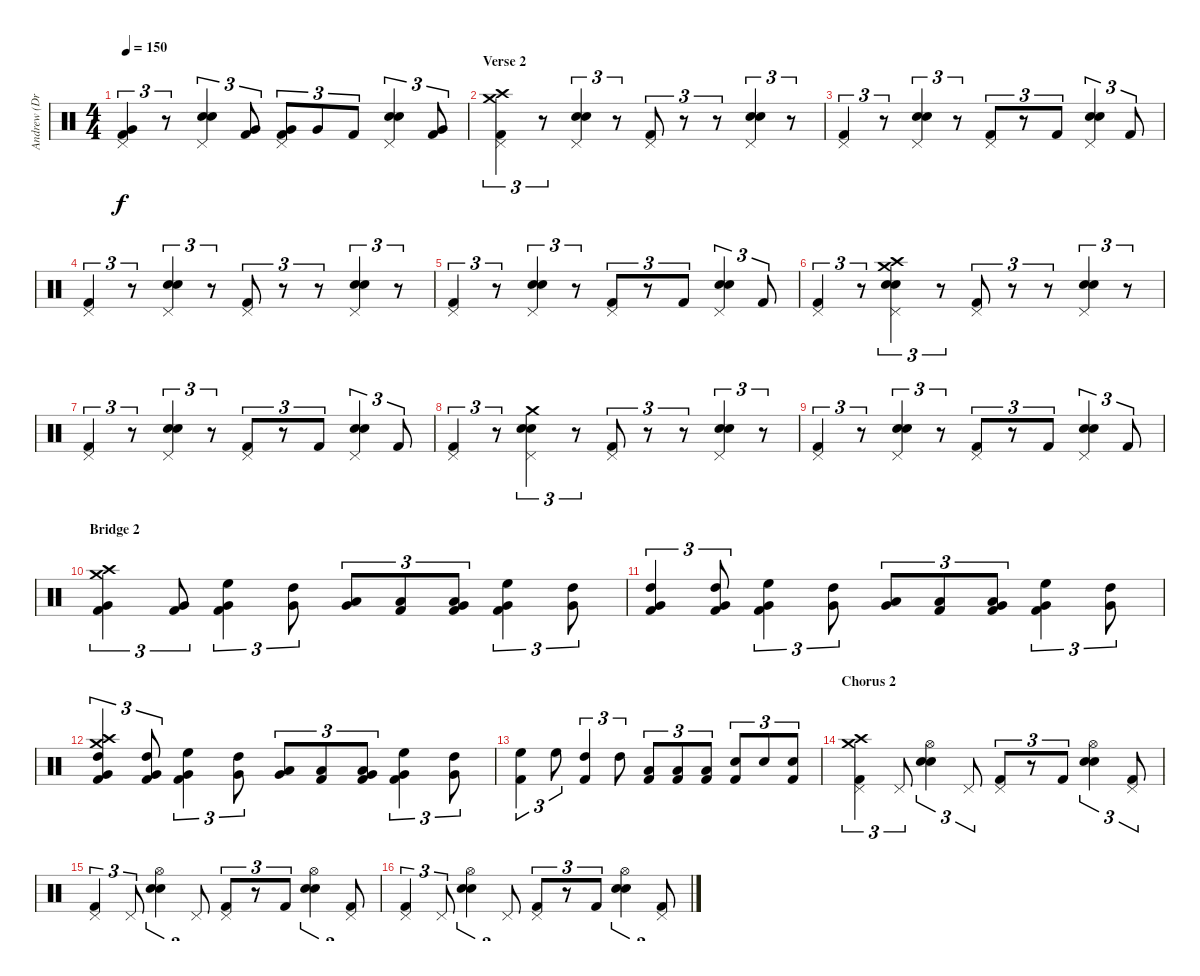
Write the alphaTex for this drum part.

\track ("Andrew (Drums)" "Andrew (Dr") {instrument percussion}
\staff {score}
\articulation defaults
\ts (4 4)
\tempo 150
\clef neutral
\ks c
("Kick (hit) 2" "Pedal Hi-Hat (hit)" "Very Low Tom (hit)").4{tu (3 2) dy f} r.8{tu (3 2)} ("Electric Snare (hit)" "Snare (hit) 2" "Pedal Hi-Hat (hit)").4{tu (3 2)} ("Kick (hit) 2" "Very Low Tom (hit)").8{tu (3 2)} ("Kick (hit) 2" "Pedal Hi-Hat (hit)" "Very Low Tom (hit)").8{tu (3 2)} "Very Low Tom (hit)".8{tu (3 2)} "Kick (hit) 2".8{tu (3 2)} ("Electric Snare (hit)" "Snare (hit) 2" "Pedal Hi-Hat (hit)").4{tu (3 2)} ("Kick (hit) 2" "Very Low Tom (hit)").8{tu (3 2)} |
\section ("" "Verse 2")
("Kick (hit) 2" "Pedal Hi-Hat (hit)" "Crash medium (hit)" "Crash high (hit)").4{tu (3 2)} r.8{tu (3 2)} ("Electric Snare (hit)" "Snare (hit) 2" "Pedal Hi-Hat (hit)").4{tu (3 2)} r.8{tu (3 2)} ("Kick (hit) 2" "Pedal Hi-Hat (hit)").8{tu (3 2)} r.8{tu (3 2)} r.8{tu (3 2)} ("Electric Snare (hit)" "Snare (hit) 2" "Pedal Hi-Hat (hit)").4{tu (3 2)} r.8{tu (3 2)} |
("Kick (hit) 2" "Pedal Hi-Hat (hit)").4{tu (3 2)} r.8{tu (3 2)} ("Electric Snare (hit)" "Snare (hit) 2" "Pedal Hi-Hat (hit)").4{tu (3 2)} r.8{tu (3 2)} ("Kick (hit) 2" "Pedal Hi-Hat (hit)").8{tu (3 2)} r.8{tu (3 2)} "Kick (hit) 2".8{tu (3 2)} ("Electric Snare (hit)" "Snare (hit) 2" "Pedal Hi-Hat (hit)").4{tu (3 2)} "Kick (hit) 2".8{tu (3 2)} |
("Kick (hit) 2" "Pedal Hi-Hat (hit)").4{tu (3 2)} r.8{tu (3 2)} ("Electric Snare (hit)" "Snare (hit) 2" "Pedal Hi-Hat (hit)").4{tu (3 2)} r.8{tu (3 2)} ("Kick (hit) 2" "Pedal Hi-Hat (hit)").8{tu (3 2)} r.8{tu (3 2)} r.8{tu (3 2)} ("Electric Snare (hit)" "Snare (hit) 2" "Pedal Hi-Hat (hit)").4{tu (3 2)} r.8{tu (3 2)} |
("Kick (hit) 2" "Pedal Hi-Hat (hit)").4{tu (3 2)} r.8{tu (3 2)} ("Electric Snare (hit)" "Snare (hit) 2" "Pedal Hi-Hat (hit)").4{tu (3 2)} r.8{tu (3 2)} ("Kick (hit) 2" "Pedal Hi-Hat (hit)").8{tu (3 2)} r.8{tu (3 2)} "Kick (hit) 2".8{tu (3 2)} ("Electric Snare (hit)" "Snare (hit) 2" "Pedal Hi-Hat (hit)").4{tu (3 2)} "Kick (hit) 2".8{tu (3 2)} |
("Kick (hit) 2" "Pedal Hi-Hat (hit)").4{tu (3 2)} r.8{tu (3 2)} ("Electric Snare (hit)" "Snare (hit) 2" "Pedal Hi-Hat (hit)" "Crash medium (hit)" "Crash high (hit)").4{tu (3 2)} r.8{tu (3 2)} ("Kick (hit) 2" "Pedal Hi-Hat (hit)").8{tu (3 2)} r.8{tu (3 2)} r.8{tu (3 2)} ("Electric Snare (hit)" "Snare (hit) 2" "Pedal Hi-Hat (hit)").4{tu (3 2)} r.8{tu (3 2)} |
("Kick (hit) 2" "Pedal Hi-Hat (hit)").4{tu (3 2)} r.8{tu (3 2)} ("Electric Snare (hit)" "Snare (hit) 2" "Pedal Hi-Hat (hit)").4{tu (3 2)} r.8{tu (3 2)} ("Kick (hit) 2" "Pedal Hi-Hat (hit)").8{tu (3 2)} r.8{tu (3 2)} "Kick (hit) 2".8{tu (3 2)} ("Electric Snare (hit)" "Snare (hit) 2" "Pedal Hi-Hat (hit)").4{tu (3 2)} "Kick (hit) 2".8{tu (3 2)} |
("Kick (hit) 2" "Pedal Hi-Hat (hit)").4{tu (3 2)} r.8{tu (3 2)} ("Electric Snare (hit)" "Snare (hit) 2" "Pedal Hi-Hat (hit)" "Crash medium (hit)").4{tu (3 2)} r.8{tu (3 2)} ("Kick (hit) 2" "Pedal Hi-Hat (hit)").8{tu (3 2)} r.8{tu (3 2)} r.8{tu (3 2)} ("Electric Snare (hit)" "Snare (hit) 2" "Pedal Hi-Hat (hit)").4{tu (3 2)} r.8{tu (3 2)} |
("Kick (hit) 2" "Pedal Hi-Hat (hit)").4{tu (3 2)} r.8{tu (3 2)} ("Electric Snare (hit)" "Snare (hit) 2" "Pedal Hi-Hat (hit)").4{tu (3 2)} r.8{tu (3 2)} ("Kick (hit) 2" "Pedal Hi-Hat (hit)").8{tu (3 2)} r.8{tu (3 2)} "Kick (hit) 2".8{tu (3 2)} ("Electric Snare (hit)" "Snare (hit) 2" "Pedal Hi-Hat (hit)").4{tu (3 2)} "Kick (hit) 2".8{tu (3 2)} |
\section ("" "Bridge 2")
("Crash high (hit)" "Crash medium (hit)" "Kick (hit) 2" "Very Low Tom (hit)").4{tu (3 2)} ("Kick (hit) 2" "Very Low Tom (hit)").8{tu (3 2)} ("High Floor Tom (hit)" "Kick (hit) 2" "Very Low Tom (hit)").4{tu (3 2)} ("High Tom (hit)" "Very Low Tom (hit)").8{tu (3 2)} ("Low Tom (hit)" "Very Low Tom (hit)").8{tu (3 2)} ("Low Tom (hit)" "Kick (hit) 2").8{tu (3 2)} ("Low Tom (hit)" "Kick (hit) 2" "Very Low Tom (hit)").8{tu (3 2)} ("High Floor Tom (hit)" "Kick (hit) 2" "Very Low Tom (hit)").4{tu (3 2)} ("High Tom (hit)" "Very Low Tom (hit)").8{tu (3 2)} |
("High Tom (hit)" "Kick (hit) 2" "Very Low Tom (hit)").4{tu (3 2)} ("High Tom (hit)" "Kick (hit) 2" "Very Low Tom (hit)").8{tu (3 2)} ("High Floor Tom (hit)" "Kick (hit) 2" "Very Low Tom (hit)").4{tu (3 2)} ("High Tom (hit)" "Very Low Tom (hit)").8{tu (3 2)} ("Low Tom (hit)" "Very Low Tom (hit)").8{tu (3 2)} ("Low Tom (hit)" "Kick (hit) 2").8{tu (3 2)} ("Low Tom (hit)" "Kick (hit) 2" "Very Low Tom (hit)").8{tu (3 2)} ("High Floor Tom (hit)" "Kick (hit) 2" "Very Low Tom (hit)").4{tu (3 2)} ("High Tom (hit)" "Very Low Tom (hit)").8{tu (3 2)} |
("Crash medium (hit)" "High Tom (hit)" "Kick (hit) 2" "Very Low Tom (hit)" "Crash high (hit)").4{tu (3 2)} ("High Tom (hit)" "Kick (hit) 2" "Very Low Tom (hit)").8{tu (3 2)} ("High Floor Tom (hit)" "Kick (hit) 2" "Very Low Tom (hit)").4{tu (3 2)} ("High Tom (hit)" "Very Low Tom (hit)").8{tu (3 2)} ("Low Tom (hit)" "Very Low Tom (hit)").8{tu (3 2)} ("Low Tom (hit)" "Kick (hit) 2").8{tu (3 2)} ("Low Tom (hit)" "Kick (hit) 2" "Very Low Tom (hit)").8{tu (3 2)} ("High Floor Tom (hit)" "Kick (hit) 2" "Very Low Tom (hit)").4{tu (3 2)} ("High Tom (hit)" "Very Low Tom (hit)").8{tu (3 2)} |
("High Floor Tom (hit)" "Kick (hit) 2").4{tu (3 2)} "High Floor Tom (hit)".8{tu (3 2)} ("High Tom (hit)" "Kick (hit) 2").4{tu (3 2)} "High Tom (hit)".8{tu (3 2)} ("Low Tom (hit)" "Kick (hit) 2").8{tu (3 2)} ("Low Tom (hit)" "Kick (hit) 2").8{tu (3 2)} ("Low Tom (hit)" "Kick (hit) 2").8{tu (3 2)} ("Electric Snare (hit)" "Kick (hit) 2").8{tu (3 2)} "Electric Snare (hit)".8{tu (3 2)} ("Electric Snare (hit)" "Kick (hit) 2").8{tu (3 2)} |
\section ("" "Chorus 2")
("Kick (hit) 2" "Pedal Hi-Hat (hit)" "Crash medium (hit)" "Crash high (hit)").4{tu (3 2)} "Pedal Hi-Hat (hit)".8{tu (3 2)} ("Electric Snare (hit)" "Snare (hit) 2" "Hi-Hat (open)").4{tu (3 2)} "Pedal Hi-Hat (hit)".8{tu (3 2)} ("Kick (hit) 2" "Pedal Hi-Hat (hit)").8{tu (3 2)} r.8{tu (3 2)} "Kick (hit) 2".8{tu (3 2)} ("Electric Snare (hit)" "Snare (hit) 2" "Hi-Hat (open)").4{tu (3 2)} ("Kick (hit) 2" "Pedal Hi-Hat (hit)").8{tu (3 2)} |
("Kick (hit) 2" "Pedal Hi-Hat (hit)").4{tu (3 2)} "Pedal Hi-Hat (hit)".8{tu (3 2)} ("Electric Snare (hit)" "Snare (hit) 2" "Hi-Hat (open)").4{tu (3 2)} "Pedal Hi-Hat (hit)".8{tu (3 2)} ("Kick (hit) 2" "Pedal Hi-Hat (hit)").8{tu (3 2)} r.8{tu (3 2)} "Kick (hit) 2".8{tu (3 2)} ("Electric Snare (hit)" "Snare (hit) 2" "Hi-Hat (open)").4{tu (3 2)} ("Kick (hit) 2" "Pedal Hi-Hat (hit)").8{tu (3 2)} |
("Kick (hit) 2" "Pedal Hi-Hat (hit)").4{tu (3 2)} "Pedal Hi-Hat (hit)".8{tu (3 2)} ("Electric Snare (hit)" "Snare (hit) 2" "Hi-Hat (open)").4{tu (3 2)} "Pedal Hi-Hat (hit)".8{tu (3 2)} ("Kick (hit) 2" "Pedal Hi-Hat (hit)").8{tu (3 2)} r.8{tu (3 2)} "Kick (hit) 2".8{tu (3 2)} ("Electric Snare (hit)" "Snare (hit) 2" "Hi-Hat (open)").4{tu (3 2)} ("Kick (hit) 2" "Pedal Hi-Hat (hit)").8{tu (3 2)}
